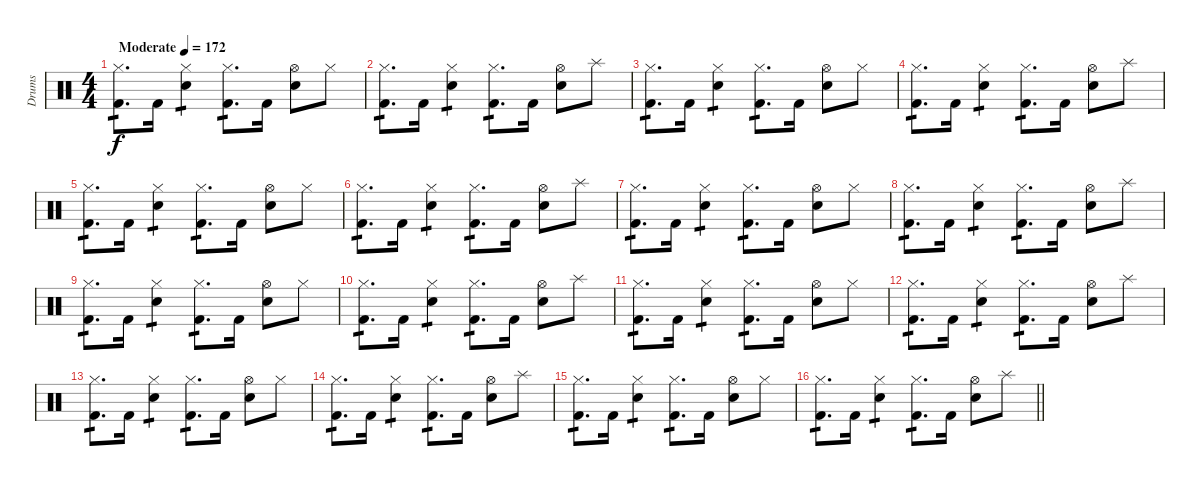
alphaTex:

\track ("Drums" "Drums") {instrument percussion}
\staff {score}
\articulation defaults
\ts (4 4)
\tempo (172 "Moderate")
\clef neutral
\ks c
("Hi-Hat (closed)" "Kick (hit) 2").8{d tp 1 dy f} "Kick (hit) 2".16 ("Hi-Hat (closed)" "Electric Snare (hit)").4{tp 1} ("Hi-Hat (closed)" "Kick (hit) 2").8{d tp 1} "Kick (hit) 2".16 ("Hi-Hat (open)" "Electric Snare (hit)").8 "Hi-Hat (closed)".8 |
("Hi-Hat (closed)" "Kick (hit) 2").8{d tp 1} "Kick (hit) 2".16 ("Hi-Hat (closed)" "Electric Snare (hit)").4{tp 1} ("Hi-Hat (closed)" "Kick (hit) 2").8{d tp 1} "Kick (hit) 2".16 ("Hi-Hat (open)" "Electric Snare (hit)").8 "Splash (hit)".8 |
("Hi-Hat (closed)" "Kick (hit) 2").8{d tp 1} "Kick (hit) 2".16 ("Hi-Hat (closed)" "Electric Snare (hit)").4{tp 1} ("Hi-Hat (closed)" "Kick (hit) 2").8{d tp 1} "Kick (hit) 2".16 ("Hi-Hat (open)" "Electric Snare (hit)").8 "Hi-Hat (closed)".8 |
("Hi-Hat (closed)" "Kick (hit) 2").8{d tp 1} "Kick (hit) 2".16 ("Hi-Hat (closed)" "Electric Snare (hit)").4{tp 1} ("Hi-Hat (closed)" "Kick (hit) 2").8{d tp 1} "Kick (hit) 2".16 ("Hi-Hat (open)" "Electric Snare (hit)").8 "Splash (hit)".8 |
("Hi-Hat (closed)" "Kick (hit) 2").8{d tp 1} "Kick (hit) 2".16 ("Hi-Hat (closed)" "Electric Snare (hit)").4{tp 1} ("Hi-Hat (closed)" "Kick (hit) 2").8{d tp 1} "Kick (hit) 2".16 ("Hi-Hat (open)" "Electric Snare (hit)").8 "Hi-Hat (closed)".8 |
("Hi-Hat (closed)" "Kick (hit) 2").8{d tp 1} "Kick (hit) 2".16 ("Hi-Hat (closed)" "Electric Snare (hit)").4{tp 1} ("Hi-Hat (closed)" "Kick (hit) 2").8{d tp 1} "Kick (hit) 2".16 ("Hi-Hat (open)" "Electric Snare (hit)").8 "Splash (hit)".8 |
("Hi-Hat (closed)" "Kick (hit) 2").8{d tp 1} "Kick (hit) 2".16 ("Hi-Hat (closed)" "Electric Snare (hit)").4{tp 1} ("Hi-Hat (closed)" "Kick (hit) 2").8{d tp 1} "Kick (hit) 2".16 ("Hi-Hat (open)" "Electric Snare (hit)").8 "Hi-Hat (closed)".8 |
("Hi-Hat (closed)" "Kick (hit) 2").8{d tp 1} "Kick (hit) 2".16 ("Hi-Hat (closed)" "Electric Snare (hit)").4{tp 1} ("Hi-Hat (closed)" "Kick (hit) 2").8{d tp 1} "Kick (hit) 2".16 ("Hi-Hat (open)" "Electric Snare (hit)").8 "Splash (hit)".8 |
("Hi-Hat (closed)" "Kick (hit) 2").8{d tp 1} "Kick (hit) 2".16 ("Hi-Hat (closed)" "Electric Snare (hit)").4{tp 1} ("Hi-Hat (closed)" "Kick (hit) 2").8{d tp 1} "Kick (hit) 2".16 ("Hi-Hat (open)" "Electric Snare (hit)").8 "Hi-Hat (closed)".8 |
("Hi-Hat (closed)" "Kick (hit) 2").8{d tp 1} "Kick (hit) 2".16 ("Hi-Hat (closed)" "Electric Snare (hit)").4{tp 1} ("Hi-Hat (closed)" "Kick (hit) 2").8{d tp 1} "Kick (hit) 2".16 ("Hi-Hat (open)" "Electric Snare (hit)").8 "Splash (hit)".8 |
("Hi-Hat (closed)" "Kick (hit) 2").8{d tp 1} "Kick (hit) 2".16 ("Hi-Hat (closed)" "Electric Snare (hit)").4{tp 1} ("Hi-Hat (closed)" "Kick (hit) 2").8{d tp 1} "Kick (hit) 2".16 ("Hi-Hat (open)" "Electric Snare (hit)").8 "Hi-Hat (closed)".8 |
("Hi-Hat (closed)" "Kick (hit) 2").8{d tp 1} "Kick (hit) 2".16 ("Hi-Hat (closed)" "Electric Snare (hit)").4{tp 1} ("Hi-Hat (closed)" "Kick (hit) 2").8{d tp 1} "Kick (hit) 2".16 ("Hi-Hat (open)" "Electric Snare (hit)").8 "Splash (hit)".8 |
("Hi-Hat (closed)" "Kick (hit) 2").8{d tp 1} "Kick (hit) 2".16 ("Hi-Hat (closed)" "Electric Snare (hit)").4{tp 1} ("Hi-Hat (closed)" "Kick (hit) 2").8{d tp 1} "Kick (hit) 2".16 ("Hi-Hat (open)" "Electric Snare (hit)").8 "Hi-Hat (closed)".8 |
("Hi-Hat (closed)" "Kick (hit) 2").8{d tp 1} "Kick (hit) 2".16 ("Hi-Hat (closed)" "Electric Snare (hit)").4{tp 1} ("Hi-Hat (closed)" "Kick (hit) 2").8{d tp 1} "Kick (hit) 2".16 ("Hi-Hat (open)" "Electric Snare (hit)").8 "Splash (hit)".8 |
("Hi-Hat (closed)" "Kick (hit) 2").8{d tp 1} "Kick (hit) 2".16 ("Hi-Hat (closed)" "Electric Snare (hit)").4{tp 1} ("Hi-Hat (closed)" "Kick (hit) 2").8{d tp 1} "Kick (hit) 2".16 ("Hi-Hat (open)" "Electric Snare (hit)").8 "Hi-Hat (closed)".8 |
\barLineRight lightlight
("Hi-Hat (closed)" "Kick (hit) 2").8{d tp 1} "Kick (hit) 2".16 ("Hi-Hat (closed)" "Electric Snare (hit)").4{tp 1} ("Hi-Hat (closed)" "Kick (hit) 2").8{d tp 1} "Kick (hit) 2".16 ("Hi-Hat (open)" "Electric Snare (hit)").8 "Splash (hit)".8
